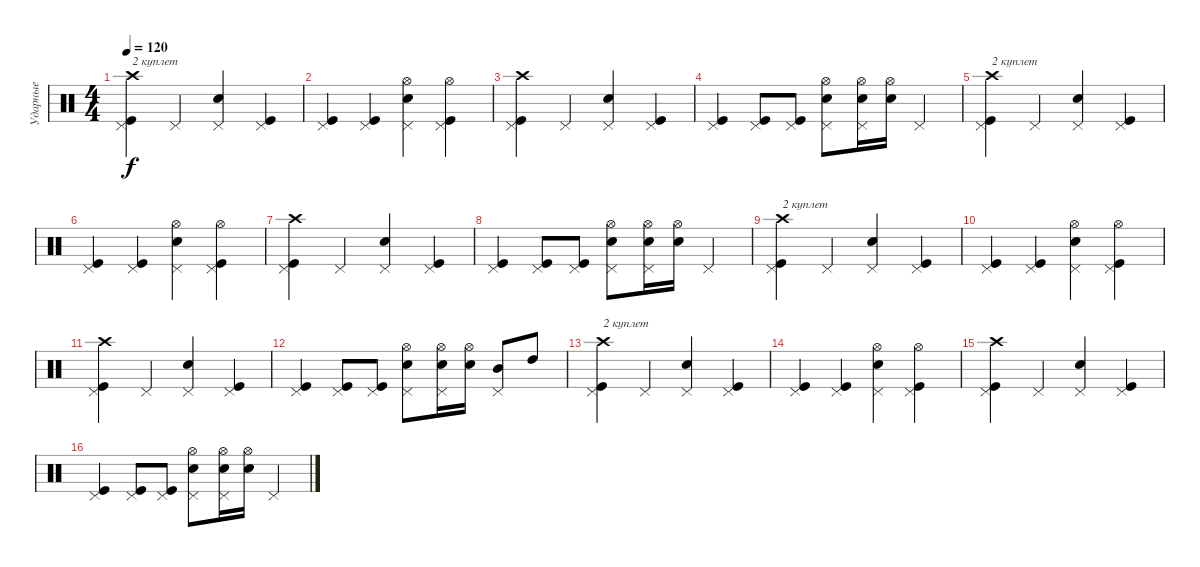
\track ("Ударные" "Ударные") {instrument percussion}
\staff {score}
\articulation defaults
\ts (4 4)
\tempo 120
\clef neutral
\ks c
("Crash high (hit)" "Kick (hit)" "Pedal Hi-Hat (hit)").4{txt "2 куплет" dy f} "Pedal Hi-Hat (hit)".4 ("Snare (hit) 2" "Pedal Hi-Hat (hit)").4 ("Kick (hit)" "Pedal Hi-Hat (hit)").4 |
("Kick (hit)" "Pedal Hi-Hat (hit)").4 ("Kick (hit)" "Pedal Hi-Hat (hit)").4 ("Hi-Hat (open)" "Snare (hit) 2" "Pedal Hi-Hat (hit)").4 ("Hi-Hat (open)" "Kick (hit)" "Pedal Hi-Hat (hit)").4 |
("Crash high (hit)" "Kick (hit)" "Pedal Hi-Hat (hit)").4 "Pedal Hi-Hat (hit)".4 ("Snare (hit) 2" "Pedal Hi-Hat (hit)").4 ("Kick (hit)" "Pedal Hi-Hat (hit)").4 |
("Kick (hit)" "Pedal Hi-Hat (hit)").4 ("Kick (hit)" "Pedal Hi-Hat (hit)").8 ("Kick (hit)" "Pedal Hi-Hat (hit)").8 ("Hi-Hat (open)" "Snare (hit) 2" "Pedal Hi-Hat (hit)").8 ("Hi-Hat (open)" "Snare (hit) 2" "Pedal Hi-Hat (hit)").16 ("Hi-Hat (open)" "Snare (hit) 2").16 "Pedal Hi-Hat (hit)".4 |
("Crash high (hit)" "Kick (hit)" "Pedal Hi-Hat (hit)").4{txt "2 куплет"} "Pedal Hi-Hat (hit)".4 ("Snare (hit) 2" "Pedal Hi-Hat (hit)").4 ("Kick (hit)" "Pedal Hi-Hat (hit)").4 |
("Kick (hit)" "Pedal Hi-Hat (hit)").4 ("Kick (hit)" "Pedal Hi-Hat (hit)").4 ("Hi-Hat (open)" "Snare (hit) 2" "Pedal Hi-Hat (hit)").4 ("Hi-Hat (open)" "Kick (hit)" "Pedal Hi-Hat (hit)").4 |
("Crash high (hit)" "Kick (hit)" "Pedal Hi-Hat (hit)").4 "Pedal Hi-Hat (hit)".4 ("Snare (hit) 2" "Pedal Hi-Hat (hit)").4 ("Kick (hit)" "Pedal Hi-Hat (hit)").4 |
("Kick (hit)" "Pedal Hi-Hat (hit)").4 ("Kick (hit)" "Pedal Hi-Hat (hit)").8 ("Kick (hit)" "Pedal Hi-Hat (hit)").8 ("Hi-Hat (open)" "Snare (hit) 2" "Pedal Hi-Hat (hit)").8 ("Hi-Hat (open)" "Snare (hit) 2" "Pedal Hi-Hat (hit)").16 ("Hi-Hat (open)" "Snare (hit) 2").16 "Pedal Hi-Hat (hit)".4 |
("Crash high (hit)" "Kick (hit)" "Pedal Hi-Hat (hit)").4{txt "2 куплет"} "Pedal Hi-Hat (hit)".4 ("Snare (hit) 2" "Pedal Hi-Hat (hit)").4 ("Kick (hit)" "Pedal Hi-Hat (hit)").4 |
("Kick (hit)" "Pedal Hi-Hat (hit)").4 ("Kick (hit)" "Pedal Hi-Hat (hit)").4 ("Hi-Hat (open)" "Snare (hit) 2" "Pedal Hi-Hat (hit)").4 ("Hi-Hat (open)" "Kick (hit)" "Pedal Hi-Hat (hit)").4 |
("Crash high (hit)" "Kick (hit)" "Pedal Hi-Hat (hit)").4 "Pedal Hi-Hat (hit)".4 ("Snare (hit) 2" "Pedal Hi-Hat (hit)").4 ("Kick (hit)" "Pedal Hi-Hat (hit)").4 |
("Kick (hit)" "Pedal Hi-Hat (hit)").4 ("Kick (hit)" "Pedal Hi-Hat (hit)").8 ("Kick (hit)" "Pedal Hi-Hat (hit)").8 ("Hi-Hat (open)" "Snare (hit) 2" "Pedal Hi-Hat (hit)").8 ("Hi-Hat (open)" "Snare (hit) 2" "Pedal Hi-Hat (hit)").16 ("Hi-Hat (open)" "Snare (hit) 2").16 ("Mid Tom (hit)" "Pedal Hi-Hat (hit)").8 "High Tom (hit)".8 |
("Crash high (hit)" "Kick (hit)" "Pedal Hi-Hat (hit)").4{txt "2 куплет"} "Pedal Hi-Hat (hit)".4 ("Snare (hit) 2" "Pedal Hi-Hat (hit)").4 ("Kick (hit)" "Pedal Hi-Hat (hit)").4 |
("Kick (hit)" "Pedal Hi-Hat (hit)").4 ("Kick (hit)" "Pedal Hi-Hat (hit)").4 ("Hi-Hat (open)" "Snare (hit) 2" "Pedal Hi-Hat (hit)").4 ("Hi-Hat (open)" "Kick (hit)" "Pedal Hi-Hat (hit)").4 |
("Crash high (hit)" "Kick (hit)" "Pedal Hi-Hat (hit)").4 "Pedal Hi-Hat (hit)".4 ("Snare (hit) 2" "Pedal Hi-Hat (hit)").4 ("Kick (hit)" "Pedal Hi-Hat (hit)").4 |
("Kick (hit)" "Pedal Hi-Hat (hit)").4 ("Kick (hit)" "Pedal Hi-Hat (hit)").8 ("Kick (hit)" "Pedal Hi-Hat (hit)").8 ("Hi-Hat (open)" "Snare (hit) 2" "Pedal Hi-Hat (hit)").8 ("Hi-Hat (open)" "Snare (hit) 2" "Pedal Hi-Hat (hit)").16 ("Hi-Hat (open)" "Snare (hit) 2").16 "Pedal Hi-Hat (hit)".4
